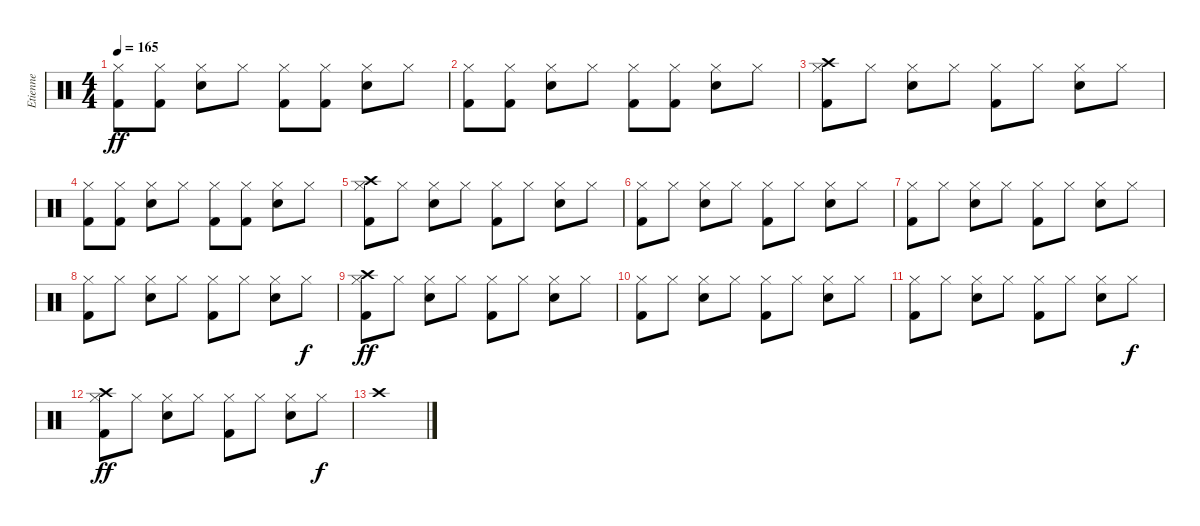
\track ("Etienne" "Etienne") {instrument percussion}
\staff {score}
\articulation defaults
\ts (4 4)
\tempo 165
\clef neutral
\ks c
("Hi-Hat (closed)" "Kick (hit) 2").8{dy ff} ("Hi-Hat (closed)" "Kick (hit) 2").8 ("Hi-Hat (closed)" "Electric Snare (hit)").8 "Hi-Hat (closed)".8 ("Hi-Hat (closed)" "Kick (hit) 2").8 ("Hi-Hat (closed)" "Kick (hit) 2").8 ("Hi-Hat (closed)" "Electric Snare (hit)").8 "Hi-Hat (closed)".8 |
("Hi-Hat (closed)" "Kick (hit) 2").8 ("Hi-Hat (closed)" "Kick (hit) 2").8 ("Hi-Hat (closed)" "Electric Snare (hit)").8 "Hi-Hat (closed)".8 ("Hi-Hat (closed)" "Kick (hit) 2").8 ("Hi-Hat (closed)" "Kick (hit) 2").8 ("Hi-Hat (closed)" "Electric Snare (hit)").8 "Hi-Hat (closed)".8 |
("Crash high (hit)" "Hi-Hat (closed)" "Kick (hit) 2").8 "Hi-Hat (closed)".8 ("Hi-Hat (closed)" "Electric Snare (hit)").8 "Hi-Hat (closed)".8 ("Hi-Hat (closed)" "Kick (hit) 2").8 "Hi-Hat (closed)".8 ("Hi-Hat (closed)" "Electric Snare (hit)").8 "Hi-Hat (closed)".8 |
("Hi-Hat (closed)" "Kick (hit) 2").8 ("Hi-Hat (closed)" "Kick (hit) 2").8 ("Hi-Hat (closed)" "Electric Snare (hit)").8 "Hi-Hat (closed)".8 ("Hi-Hat (closed)" "Kick (hit) 2").8 ("Hi-Hat (closed)" "Kick (hit) 2").8 ("Hi-Hat (closed)" "Electric Snare (hit)").8 "Hi-Hat (closed)".8 |
("Crash high (hit)" "Hi-Hat (closed)" "Kick (hit) 2").8 "Hi-Hat (closed)".8 ("Hi-Hat (closed)" "Electric Snare (hit)").8 "Hi-Hat (closed)".8 ("Hi-Hat (closed)" "Kick (hit) 2").8 "Hi-Hat (closed)".8 ("Hi-Hat (closed)" "Electric Snare (hit)").8 "Hi-Hat (closed)".8 |
("Hi-Hat (closed)" "Kick (hit) 2").8 "Hi-Hat (closed)".8 ("Hi-Hat (closed)" "Electric Snare (hit)").8 "Hi-Hat (closed)".8 ("Hi-Hat (closed)" "Kick (hit) 2").8 "Hi-Hat (closed)".8 ("Hi-Hat (closed)" "Electric Snare (hit)").8 "Hi-Hat (closed)".8 |
("Hi-Hat (closed)" "Kick (hit) 2").8 "Hi-Hat (closed)".8 ("Hi-Hat (closed)" "Electric Snare (hit)").8 "Hi-Hat (closed)".8 ("Hi-Hat (closed)" "Kick (hit) 2").8 "Hi-Hat (closed)".8 ("Hi-Hat (closed)" "Electric Snare (hit)").8 "Hi-Hat (closed)".8 |
("Hi-Hat (closed)" "Kick (hit) 2").8 "Hi-Hat (closed)".8 ("Hi-Hat (closed)" "Electric Snare (hit)").8 "Hi-Hat (closed)".8 ("Hi-Hat (closed)" "Kick (hit) 2").8 "Hi-Hat (closed)".8 ("Hi-Hat (closed)" "Electric Snare (hit)").8 "Hi-Hat (closed)".8{dy f} |
("Crash high (hit)" "Hi-Hat (closed)" "Kick (hit) 2").8{dy ff} "Hi-Hat (closed)".8 ("Hi-Hat (closed)" "Electric Snare (hit)").8 "Hi-Hat (closed)".8 ("Hi-Hat (closed)" "Kick (hit) 2").8 "Hi-Hat (closed)".8 ("Hi-Hat (closed)" "Electric Snare (hit)").8 "Hi-Hat (closed)".8 |
("Hi-Hat (closed)" "Kick (hit) 2").8 "Hi-Hat (closed)".8 ("Hi-Hat (closed)" "Electric Snare (hit)").8 "Hi-Hat (closed)".8 ("Hi-Hat (closed)" "Kick (hit) 2").8 "Hi-Hat (closed)".8 ("Hi-Hat (closed)" "Electric Snare (hit)").8 "Hi-Hat (closed)".8 |
("Hi-Hat (closed)" "Kick (hit) 2").8 "Hi-Hat (closed)".8 ("Hi-Hat (closed)" "Electric Snare (hit)").8 "Hi-Hat (closed)".8 ("Hi-Hat (closed)" "Kick (hit) 2").8 "Hi-Hat (closed)".8 ("Hi-Hat (closed)" "Electric Snare (hit)").8 "Hi-Hat (closed)".8{dy f} |
("Crash high (hit)" "Hi-Hat (closed)" "Kick (hit) 2").8{dy ff} "Hi-Hat (closed)".8 ("Hi-Hat (closed)" "Electric Snare (hit)").8 "Hi-Hat (closed)".8 ("Hi-Hat (closed)" "Kick (hit) 2").8 "Hi-Hat (closed)".8 ("Hi-Hat (closed)" "Electric Snare (hit)").8 "Hi-Hat (closed)".8{dy f} |
"Crash high (hit)".1
